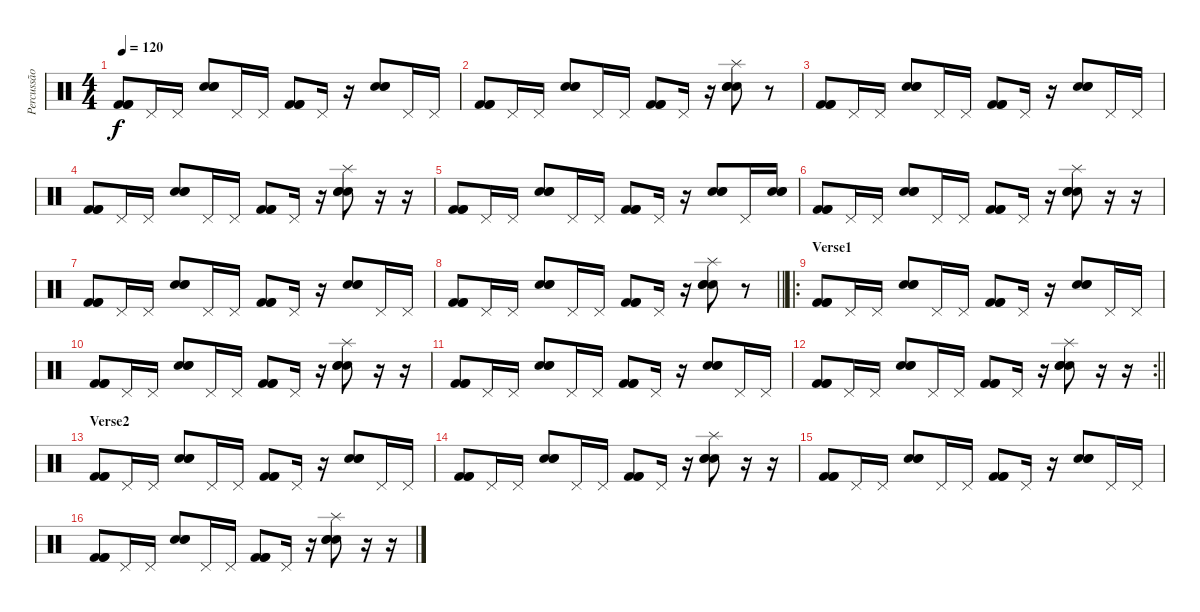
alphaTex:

\track ("Percussão" "Percussão") {instrument percussion}
\staff {score}
\articulation defaults
\ts (4 4)
\tempo 120
\clef neutral
\ks c
("Kick (hit) 2" "Kick (hit) 2" "Kick (hit) 2").8{dy f} "Pedal Hi-Hat (hit)".16 "Pedal Hi-Hat (hit)".16 ("Hand Clap (hit)" "Hand Clap (hit)" "Hand Clap (hit)").8 "Pedal Hi-Hat (hit)".16 "Pedal Hi-Hat (hit)".16 ("Kick (hit) 2" "Kick (hit) 2" "Kick (hit) 2").8 "Pedal Hi-Hat (hit)".16 r.16 ("Hand Clap (hit)" "Hand Clap (hit)" "Hand Clap (hit)").8 "Pedal Hi-Hat (hit)".16 "Pedal Hi-Hat (hit)".16 |
("Kick (hit) 2" "Kick (hit) 2" "Kick (hit) 2").8 "Pedal Hi-Hat (hit)".16 "Pedal Hi-Hat (hit)".16 ("Hand Clap (hit)" "Hand Clap (hit)" "Hand Clap (hit)").8 "Pedal Hi-Hat (hit)".16 "Pedal Hi-Hat (hit)".16 ("Kick (hit) 2" "Kick (hit) 2" "Kick (hit) 2").8 "Pedal Hi-Hat (hit)".16 r.16 ("Splash (hit)" "Hand Clap (hit)" "Hand Clap (hit)" "Hand Clap (hit)").8 r.8 |
("Kick (hit) 2" "Kick (hit) 2" "Kick (hit) 2").8 "Pedal Hi-Hat (hit)".16 "Pedal Hi-Hat (hit)".16 ("Hand Clap (hit)" "Hand Clap (hit)" "Hand Clap (hit)").8 "Pedal Hi-Hat (hit)".16 "Pedal Hi-Hat (hit)".16 ("Kick (hit) 2" "Kick (hit) 2" "Kick (hit) 2").8 "Pedal Hi-Hat (hit)".16 r.16 ("Hand Clap (hit)" "Hand Clap (hit)" "Hand Clap (hit)").8 "Pedal Hi-Hat (hit)".16 "Pedal Hi-Hat (hit)".16 |
("Kick (hit) 2" "Kick (hit) 2" "Kick (hit) 2").8 "Pedal Hi-Hat (hit)".16 "Pedal Hi-Hat (hit)".16 ("Hand Clap (hit)" "Hand Clap (hit)" "Hand Clap (hit)").8 "Pedal Hi-Hat (hit)".16 "Pedal Hi-Hat (hit)".16 ("Kick (hit) 2" "Kick (hit) 2" "Kick (hit) 2").8 "Pedal Hi-Hat (hit)".16 r.16 ("Splash (hit)" "Hand Clap (hit)" "Hand Clap (hit)" "Hand Clap (hit)").8 r.16 r.16 |
("Kick (hit) 2" "Kick (hit) 2" "Kick (hit) 2").8 "Pedal Hi-Hat (hit)".16 "Pedal Hi-Hat (hit)".16 ("Hand Clap (hit)" "Hand Clap (hit)" "Hand Clap (hit)").8 "Pedal Hi-Hat (hit)".16 "Pedal Hi-Hat (hit)".16 ("Kick (hit) 2" "Kick (hit) 2" "Kick (hit) 2").8 "Pedal Hi-Hat (hit)".16 r.16 ("Hand Clap (hit)" "Hand Clap (hit)" "Hand Clap (hit)").8 "Pedal Hi-Hat (hit)".16 ("Hand Clap (hit)" "Hand Clap (hit)" "Hand Clap (hit)").16 |
("Kick (hit) 2" "Kick (hit) 2" "Kick (hit) 2").8 "Pedal Hi-Hat (hit)".16 "Pedal Hi-Hat (hit)".16 ("Hand Clap (hit)" "Hand Clap (hit)" "Hand Clap (hit)").8 "Pedal Hi-Hat (hit)".16 "Pedal Hi-Hat (hit)".16 ("Kick (hit) 2" "Kick (hit) 2" "Kick (hit) 2").8 "Pedal Hi-Hat (hit)".16 r.16 ("Splash (hit)" "Hand Clap (hit)" "Hand Clap (hit)" "Hand Clap (hit)").8 r.16 r.16 |
("Kick (hit) 2" "Kick (hit) 2" "Kick (hit) 2").8 "Pedal Hi-Hat (hit)".16 "Pedal Hi-Hat (hit)".16 ("Hand Clap (hit)" "Hand Clap (hit)" "Hand Clap (hit)").8 "Pedal Hi-Hat (hit)".16 "Pedal Hi-Hat (hit)".16 ("Kick (hit) 2" "Kick (hit) 2" "Kick (hit) 2").8 "Pedal Hi-Hat (hit)".16 r.16 ("Hand Clap (hit)" "Hand Clap (hit)" "Hand Clap (hit)").8 "Pedal Hi-Hat (hit)".16 "Pedal Hi-Hat (hit)".16 |
\barLineRight lightlight
("Kick (hit) 2" "Kick (hit) 2" "Kick (hit) 2").8 "Pedal Hi-Hat (hit)".16 "Pedal Hi-Hat (hit)".16 ("Hand Clap (hit)" "Hand Clap (hit)" "Hand Clap (hit)").8 "Pedal Hi-Hat (hit)".16 "Pedal Hi-Hat (hit)".16 ("Kick (hit) 2" "Kick (hit) 2" "Kick (hit) 2").8 "Pedal Hi-Hat (hit)".16 r.16 ("Splash (hit)" "Hand Clap (hit)" "Hand Clap (hit)" "Hand Clap (hit)").8 r.8 |
\ro
\section ("" "Verse1")
("Kick (hit) 2" "Kick (hit) 2" "Kick (hit) 2").8 "Pedal Hi-Hat (hit)".16 "Pedal Hi-Hat (hit)".16 ("Hand Clap (hit)" "Hand Clap (hit)" "Hand Clap (hit)").8 "Pedal Hi-Hat (hit)".16 "Pedal Hi-Hat (hit)".16 ("Kick (hit) 2" "Kick (hit) 2" "Kick (hit) 2").8 "Pedal Hi-Hat (hit)".16 r.16 ("Hand Clap (hit)" "Hand Clap (hit)" "Hand Clap (hit)").8 "Pedal Hi-Hat (hit)".16 "Pedal Hi-Hat (hit)".16 |
("Kick (hit) 2" "Kick (hit) 2" "Kick (hit) 2").8 "Pedal Hi-Hat (hit)".16 "Pedal Hi-Hat (hit)".16 ("Hand Clap (hit)" "Hand Clap (hit)" "Hand Clap (hit)").8 "Pedal Hi-Hat (hit)".16 "Pedal Hi-Hat (hit)".16 ("Kick (hit) 2" "Kick (hit) 2" "Kick (hit) 2").8 "Pedal Hi-Hat (hit)".16 r.16 ("Splash (hit)" "Hand Clap (hit)" "Hand Clap (hit)" "Hand Clap (hit)").8 r.16 r.16 |
("Kick (hit) 2" "Kick (hit) 2" "Kick (hit) 2").8 "Pedal Hi-Hat (hit)".16 "Pedal Hi-Hat (hit)".16 ("Hand Clap (hit)" "Hand Clap (hit)" "Hand Clap (hit)").8 "Pedal Hi-Hat (hit)".16 "Pedal Hi-Hat (hit)".16 ("Kick (hit) 2" "Kick (hit) 2" "Kick (hit) 2").8 "Pedal Hi-Hat (hit)".16 r.16 ("Hand Clap (hit)" "Hand Clap (hit)" "Hand Clap (hit)").8 "Pedal Hi-Hat (hit)".16 "Pedal Hi-Hat (hit)".16 |
\rc 2
\barLineRight lightlight
("Kick (hit) 2" "Kick (hit) 2" "Kick (hit) 2").8 "Pedal Hi-Hat (hit)".16 "Pedal Hi-Hat (hit)".16 ("Hand Clap (hit)" "Hand Clap (hit)" "Hand Clap (hit)").8 "Pedal Hi-Hat (hit)".16 "Pedal Hi-Hat (hit)".16 ("Kick (hit) 2" "Kick (hit) 2" "Kick (hit) 2").8 "Pedal Hi-Hat (hit)".16 r.16 ("Splash (hit)" "Hand Clap (hit)" "Hand Clap (hit)" "Hand Clap (hit)").8 r.16 r.16 |
\section ("" "Verse2")
("Kick (hit) 2" "Kick (hit) 2" "Kick (hit) 2").8 "Pedal Hi-Hat (hit)".16 "Pedal Hi-Hat (hit)".16 ("Hand Clap (hit)" "Hand Clap (hit)" "Hand Clap (hit)").8 "Pedal Hi-Hat (hit)".16 "Pedal Hi-Hat (hit)".16 ("Kick (hit) 2" "Kick (hit) 2" "Kick (hit) 2").8 "Pedal Hi-Hat (hit)".16 r.16 ("Hand Clap (hit)" "Hand Clap (hit)" "Hand Clap (hit)").8 "Pedal Hi-Hat (hit)".16 "Pedal Hi-Hat (hit)".16 |
("Kick (hit) 2" "Kick (hit) 2" "Kick (hit) 2").8 "Pedal Hi-Hat (hit)".16 "Pedal Hi-Hat (hit)".16 ("Hand Clap (hit)" "Hand Clap (hit)" "Hand Clap (hit)").8 "Pedal Hi-Hat (hit)".16 "Pedal Hi-Hat (hit)".16 ("Kick (hit) 2" "Kick (hit) 2" "Kick (hit) 2").8 "Pedal Hi-Hat (hit)".16 r.16 ("Splash (hit)" "Hand Clap (hit)" "Hand Clap (hit)" "Hand Clap (hit)").8 r.16 r.16 |
("Kick (hit) 2" "Kick (hit) 2" "Kick (hit) 2").8 "Pedal Hi-Hat (hit)".16 "Pedal Hi-Hat (hit)".16 ("Hand Clap (hit)" "Hand Clap (hit)" "Hand Clap (hit)").8 "Pedal Hi-Hat (hit)".16 "Pedal Hi-Hat (hit)".16 ("Kick (hit) 2" "Kick (hit) 2" "Kick (hit) 2").8 "Pedal Hi-Hat (hit)".16 r.16 ("Hand Clap (hit)" "Hand Clap (hit)" "Hand Clap (hit)").8 "Pedal Hi-Hat (hit)".16 "Pedal Hi-Hat (hit)".16 |
("Kick (hit) 2" "Kick (hit) 2" "Kick (hit) 2").8 "Pedal Hi-Hat (hit)".16 "Pedal Hi-Hat (hit)".16 ("Hand Clap (hit)" "Hand Clap (hit)" "Hand Clap (hit)").8 "Pedal Hi-Hat (hit)".16 "Pedal Hi-Hat (hit)".16 ("Kick (hit) 2" "Kick (hit) 2" "Kick (hit) 2").8 "Pedal Hi-Hat (hit)".16 r.16 ("Splash (hit)" "Hand Clap (hit)" "Hand Clap (hit)" "Hand Clap (hit)").8 r.16 r.16
